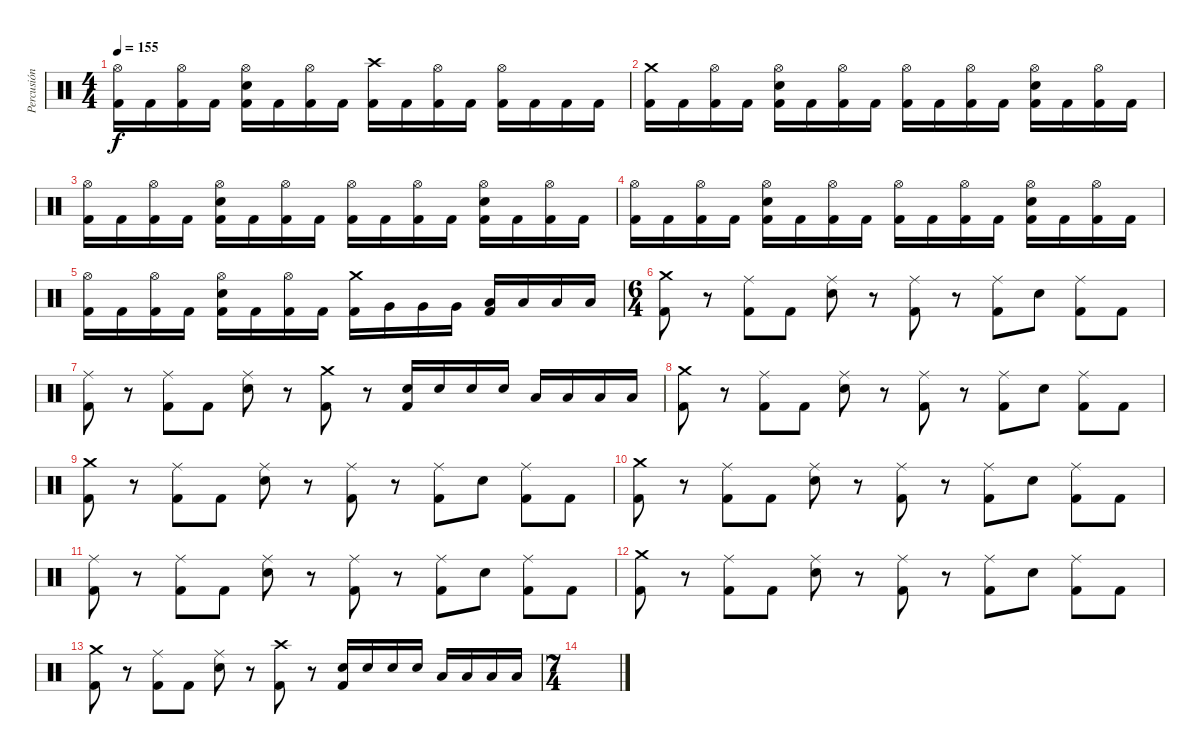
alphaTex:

\track ("Percusión" "Percusión") {instrument percussion}
\staff {score}
\articulation defaults
\ts (4 4)
\tempo 155
\clef neutral
\ks c
("Hi-Hat (open)" "Kick (hit) 2").16{dy f} "Kick (hit) 2".16 ("Hi-Hat (open)" "Kick (hit) 2").16 "Kick (hit) 2".16 ("Hi-Hat (open)" "Electric Snare (hit)" "Kick (hit) 2").16 "Kick (hit) 2".16 ("Hi-Hat (open)" "Kick (hit) 2").16 "Kick (hit) 2".16 ("Crash high (hit)" "Kick (hit) 2").16 "Kick (hit) 2".16 ("Hi-Hat (open)" "Kick (hit) 2").16 "Kick (hit) 2".16 ("Hi-Hat (open)" "Kick (hit) 2").16 "Kick (hit) 2".16 "Kick (hit) 2".16 "Kick (hit) 2".16 |
("Crash medium (hit)" "Kick (hit) 2").16 "Kick (hit) 2".16 ("Hi-Hat (open)" "Kick (hit) 2").16 "Kick (hit) 2".16 ("Hi-Hat (open)" "Electric Snare (hit)" "Kick (hit) 2").16 "Kick (hit) 2".16 ("Hi-Hat (open)" "Kick (hit) 2").16 "Kick (hit) 2".16 ("Hi-Hat (open)" "Kick (hit) 2").16 "Kick (hit) 2".16 ("Hi-Hat (open)" "Kick (hit) 2").16 "Kick (hit) 2".16 ("Hi-Hat (open)" "Electric Snare (hit)" "Kick (hit) 2").16 "Kick (hit) 2".16 ("Hi-Hat (open)" "Kick (hit) 2").16 "Kick (hit) 2".16 |
("Hi-Hat (open)" "Kick (hit) 2").16 "Kick (hit) 2".16 ("Hi-Hat (open)" "Kick (hit) 2").16 "Kick (hit) 2".16 ("Hi-Hat (open)" "Electric Snare (hit)" "Kick (hit) 2").16 "Kick (hit) 2".16 ("Hi-Hat (open)" "Kick (hit) 2").16 "Kick (hit) 2".16 ("Hi-Hat (open)" "Kick (hit) 2").16 "Kick (hit) 2".16 ("Hi-Hat (open)" "Kick (hit) 2").16 "Kick (hit) 2".16 ("Hi-Hat (open)" "Electric Snare (hit)" "Kick (hit) 2").16 "Kick (hit) 2".16 ("Hi-Hat (open)" "Kick (hit) 2").16 "Kick (hit) 2".16 |
("Hi-Hat (open)" "Kick (hit) 2").16 "Kick (hit) 2".16 ("Hi-Hat (open)" "Kick (hit) 2").16 "Kick (hit) 2".16 ("Hi-Hat (open)" "Electric Snare (hit)" "Kick (hit) 2").16 "Kick (hit) 2".16 ("Hi-Hat (open)" "Kick (hit) 2").16 "Kick (hit) 2".16 ("Hi-Hat (open)" "Kick (hit) 2").16 "Kick (hit) 2".16 ("Hi-Hat (open)" "Kick (hit) 2").16 "Kick (hit) 2".16 ("Hi-Hat (open)" "Electric Snare (hit)" "Kick (hit) 2").16 "Kick (hit) 2".16 ("Hi-Hat (open)" "Kick (hit) 2").16 "Kick (hit) 2".16 |
("Hi-Hat (open)" "Kick (hit) 2").16 "Kick (hit) 2".16 ("Hi-Hat (open)" "Kick (hit) 2").16 "Kick (hit) 2".16 ("Hi-Hat (open)" "Electric Snare (hit)" "Kick (hit) 2").16 "Kick (hit) 2".16 ("Hi-Hat (open)" "Kick (hit) 2").16 "Kick (hit) 2".16 ("Crash medium (hit)" "Kick (hit) 2").16 "Very Low Tom (hit)".16 "Very Low Tom (hit)".16 "Very Low Tom (hit)".16 ("Low Tom (hit)" "Kick (hit) 2").16 "Low Tom (hit)".16 "Low Floor Tom (hit)".16 "Low Floor Tom (hit)".16 |
\ts (6 4)
("Crash medium (hit)" "Kick (hit) 2").8 r.8 ("Ride (middle)" "Kick (hit) 2").8 "Kick (hit) 2".8 ("Ride (middle)" "Electric Snare (hit)").8 r.8 ("Ride (middle)" "Kick (hit) 2").8 r.8 ("Ride (middle)" "Kick (hit) 2").8 "Electric Snare (hit)".8 ("Ride (middle)" "Kick (hit) 2").8 "Kick (hit) 2".8 |
("Ride (middle)" "Kick (hit) 2").8 r.8 ("Ride (middle)" "Kick (hit) 2").8 "Kick (hit) 2".8 ("Ride (middle)" "Electric Snare (hit)").8 r.8 ("Crash medium (hit)" "Kick (hit) 2").8 r.8 ("Electric Snare (hit)" "Kick (hit) 2").16 "Electric Snare (hit)".16 "Electric Snare (hit)".16 "Electric Snare (hit)".16 "Low Tom (hit)".16 "Low Tom (hit)".16 "Low Floor Tom (hit)".16 "Low Floor Tom (hit)".16 |
("Crash medium (hit)" "Kick (hit) 2").8 r.8 ("Ride (middle)" "Kick (hit) 2").8 "Kick (hit) 2".8 ("Ride (middle)" "Electric Snare (hit)").8 r.8 ("Ride (middle)" "Kick (hit) 2").8 r.8 ("Ride (middle)" "Kick (hit) 2").8 "Electric Snare (hit)".8 ("Ride (middle)" "Kick (hit) 2").8 "Kick (hit) 2".8 |
("Crash medium (hit)" "Kick (hit) 2").8 r.8 ("Ride (middle)" "Kick (hit) 2").8 "Kick (hit) 2".8 ("Ride (middle)" "Electric Snare (hit)").8 r.8 ("Ride (middle)" "Kick (hit) 2").8 r.8 ("Ride (middle)" "Kick (hit) 2").8 "Electric Snare (hit)".8 ("Ride (middle)" "Kick (hit) 2").8 "Kick (hit) 2".8 |
("Crash medium (hit)" "Kick (hit) 2").8 r.8 ("Ride (middle)" "Kick (hit) 2").8 "Kick (hit) 2".8 ("Ride (middle)" "Electric Snare (hit)").8 r.8 ("Ride (middle)" "Kick (hit) 2").8 r.8 ("Ride (middle)" "Kick (hit) 2").8 "Electric Snare (hit)".8 ("Ride (middle)" "Kick (hit) 2").8 "Kick (hit) 2".8 |
("Ride (middle)" "Kick (hit) 2").8 r.8 ("Ride (middle)" "Kick (hit) 2").8 "Kick (hit) 2".8 ("Ride (middle)" "Electric Snare (hit)").8 r.8 ("Ride (middle)" "Kick (hit) 2").8 r.8 ("Ride (middle)" "Kick (hit) 2").8 "Electric Snare (hit)".8 ("Ride (middle)" "Kick (hit) 2").8 "Kick (hit) 2".8 |
("Crash medium (hit)" "Kick (hit) 2").8 r.8 ("Ride (middle)" "Kick (hit) 2").8 "Kick (hit) 2".8 ("Ride (middle)" "Electric Snare (hit)").8 r.8 ("Ride (middle)" "Kick (hit) 2").8 r.8 ("Ride (middle)" "Kick (hit) 2").8 "Electric Snare (hit)".8 ("Ride (middle)" "Kick (hit) 2").8 "Kick (hit) 2".8 |
("Crash medium (hit)" "Kick (hit) 2").8 r.8 ("Ride (middle)" "Kick (hit) 2").8 "Kick (hit) 2".8 ("Ride (middle)" "Electric Snare (hit)").8 r.8 ("Crash high (hit)" "Kick (hit) 2").8 r.8 ("Electric Snare (hit)" "Kick (hit) 2").16 "Electric Snare (hit)".16 "Electric Snare (hit)".16 "Electric Snare (hit)".16 "Low Tom (hit)".16 "Low Tom (hit)".16 "Low Floor Tom (hit)".16 "Low Floor Tom (hit)".16 |
\ts (7 4)
